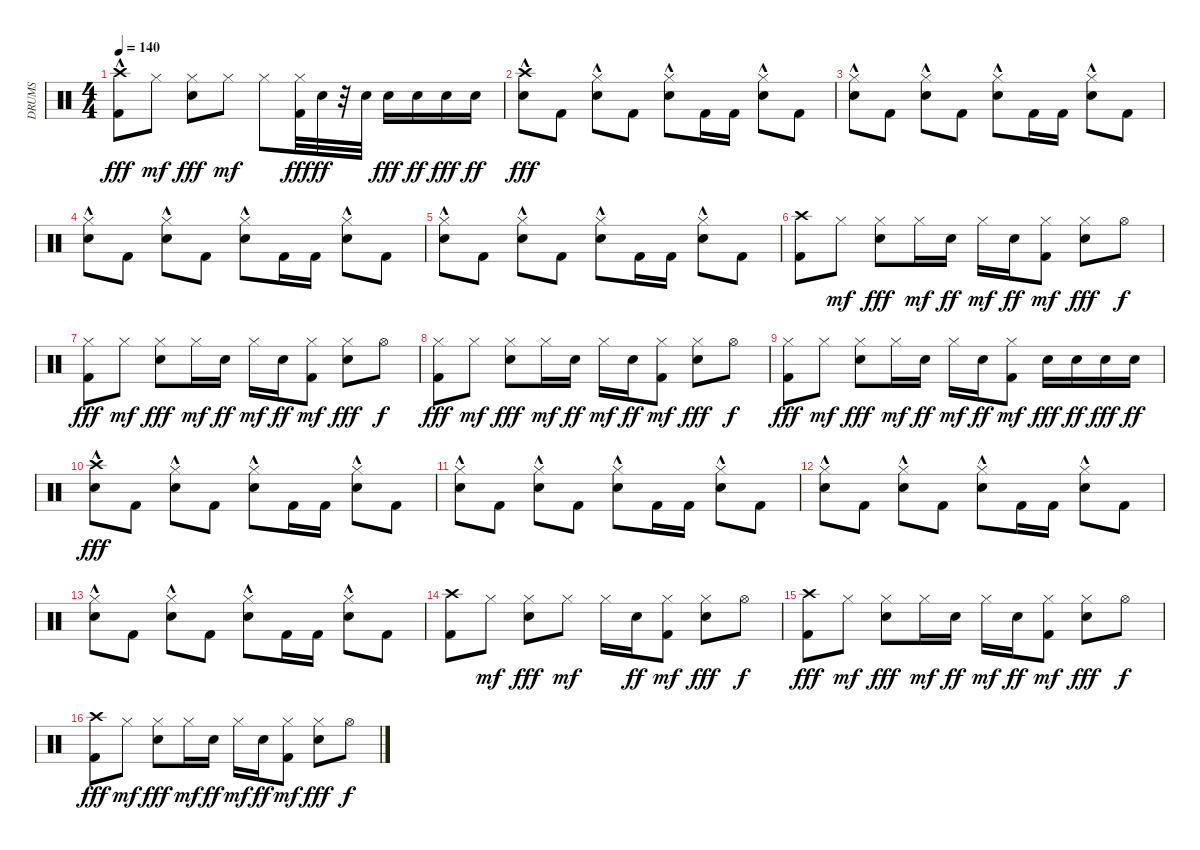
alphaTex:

\track ("DRUMS" "DRUMS") {instrument percussion}
\staff {score}
\articulation defaults
\ts (4 4)
\tempo 140
\clef neutral
\ks c
("Crash high (hit)" "Kick (hit) 2"{hac}).8{dy fff} "Hi-Hat (closed)".8{dy mf} ("Hi-Hat (closed)" "Electric Snare (hit)").8{dy fff} "Hi-Hat (closed)".8{dy mf} "Hi-Hat (closed)".8 ("Hi-Hat (closed)" "Kick (hit) 2").32{dy fff} "Electric Snare (hit)".32{dy ff} r.32 "Electric Snare (hit)".32 "Electric Snare (hit)".16{dy fff} "Electric Snare (hit)".16{dy ff} "Electric Snare (hit)".16{dy fff} "Electric Snare (hit)".16{dy ff} |
("Electric Snare (hit)"{hac} "Crash high (hit)"{hac}).8{dy fff} "Kick (hit) 2".8 ("Electric Snare (hit)"{hac} "Hi-Hat (closed)"{hac}).8 "Kick (hit) 2".8 ("Electric Snare (hit)"{hac} "Hi-Hat (closed)"{hac}).8 "Kick (hit) 2".16 "Kick (hit) 2".16 ("Electric Snare (hit)"{hac} "Hi-Hat (closed)"{hac}).8 "Kick (hit) 2".8 |
("Electric Snare (hit)"{hac} "Hi-Hat (closed)"{hac}).8 "Kick (hit) 2".8 ("Electric Snare (hit)"{hac} "Hi-Hat (closed)"{hac}).8 "Kick (hit) 2".8 ("Electric Snare (hit)"{hac} "Hi-Hat (closed)"{hac}).8 "Kick (hit) 2".16 "Kick (hit) 2".16 ("Electric Snare (hit)"{hac} "Hi-Hat (closed)"{hac}).8 "Kick (hit) 2".8 |
("Electric Snare (hit)"{hac} "Hi-Hat (closed)"{hac}).8 "Kick (hit) 2".8 ("Electric Snare (hit)"{hac} "Hi-Hat (closed)"{hac}).8 "Kick (hit) 2".8 ("Electric Snare (hit)"{hac} "Hi-Hat (closed)"{hac}).8 "Kick (hit) 2".16 "Kick (hit) 2".16 ("Electric Snare (hit)"{hac} "Hi-Hat (closed)"{hac}).8 "Kick (hit) 2".8 |
("Electric Snare (hit)"{hac} "Hi-Hat (closed)"{hac}).8 "Kick (hit) 2".8 ("Electric Snare (hit)"{hac} "Hi-Hat (closed)"{hac}).8 "Kick (hit) 2".8 ("Electric Snare (hit)"{hac} "Hi-Hat (closed)"{hac}).8 "Kick (hit) 2".16 "Kick (hit) 2".16 ("Electric Snare (hit)"{hac} "Hi-Hat (closed)"{hac}).8 "Kick (hit) 2".8 |
("Kick (hit) 2" "Crash high (hit)").8 "Hi-Hat (closed)".8{dy mf} ("Hi-Hat (closed)" "Electric Snare (hit)").8{dy fff} "Hi-Hat (closed)".16{dy mf} "Electric Snare (hit)".16{dy ff} "Hi-Hat (closed)".16{dy mf} "Electric Snare (hit)".16{dy ff} ("Kick (hit) 2" "Hi-Hat (closed)").8{dy mf} ("Hi-Hat (closed)" "Electric Snare (hit)").8{dy fff} "Hi-Hat (open)".8{dy f} |
("Kick (hit) 2" "Hi-Hat (closed)").8{dy fff} "Hi-Hat (closed)".8{dy mf} ("Hi-Hat (closed)" "Electric Snare (hit)").8{dy fff} "Hi-Hat (closed)".16{dy mf} "Electric Snare (hit)".16{dy ff} "Hi-Hat (closed)".16{dy mf} "Electric Snare (hit)".16{dy ff} ("Kick (hit) 2" "Hi-Hat (closed)").8{dy mf} ("Hi-Hat (closed)" "Electric Snare (hit)").8{dy fff} "Hi-Hat (open)".8{dy f} |
("Kick (hit) 2" "Hi-Hat (closed)").8{dy fff} "Hi-Hat (closed)".8{dy mf} ("Hi-Hat (closed)" "Electric Snare (hit)").8{dy fff} "Hi-Hat (closed)".16{dy mf} "Electric Snare (hit)".16{dy ff} "Hi-Hat (closed)".16{dy mf} "Electric Snare (hit)".16{dy ff} ("Kick (hit) 2" "Hi-Hat (closed)").8{dy mf} ("Hi-Hat (closed)" "Electric Snare (hit)").8{dy fff} "Hi-Hat (open)".8{dy f} |
("Kick (hit) 2" "Hi-Hat (closed)").8{dy fff} "Hi-Hat (closed)".8{dy mf} ("Hi-Hat (closed)" "Electric Snare (hit)").8{dy fff} "Hi-Hat (closed)".16{dy mf} "Electric Snare (hit)".16{dy ff} "Hi-Hat (closed)".16{dy mf} "Electric Snare (hit)".16{dy ff} ("Kick (hit) 2" "Hi-Hat (closed)").8{dy mf} "Electric Snare (hit)".16{dy fff} "Electric Snare (hit)".16{dy ff} "Electric Snare (hit)".16{dy fff} "Electric Snare (hit)".16{dy ff} |
("Electric Snare (hit)"{hac} "Crash high (hit)"{hac}).8{dy fff} "Kick (hit) 2".8 ("Electric Snare (hit)"{hac} "Hi-Hat (closed)"{hac}).8 "Kick (hit) 2".8 ("Electric Snare (hit)"{hac} "Hi-Hat (closed)"{hac}).8 "Kick (hit) 2".16 "Kick (hit) 2".16 ("Electric Snare (hit)"{hac} "Hi-Hat (closed)"{hac}).8 "Kick (hit) 2".8 |
("Electric Snare (hit)"{hac} "Hi-Hat (closed)"{hac}).8 "Kick (hit) 2".8 ("Electric Snare (hit)"{hac} "Hi-Hat (closed)"{hac}).8 "Kick (hit) 2".8 ("Electric Snare (hit)"{hac} "Hi-Hat (closed)"{hac}).8 "Kick (hit) 2".16 "Kick (hit) 2".16 ("Electric Snare (hit)"{hac} "Hi-Hat (closed)"{hac}).8 "Kick (hit) 2".8 |
("Electric Snare (hit)"{hac} "Hi-Hat (closed)"{hac}).8 "Kick (hit) 2".8 ("Electric Snare (hit)"{hac} "Hi-Hat (closed)"{hac}).8 "Kick (hit) 2".8 ("Electric Snare (hit)"{hac} "Hi-Hat (closed)"{hac}).8 "Kick (hit) 2".16 "Kick (hit) 2".16 ("Electric Snare (hit)"{hac} "Hi-Hat (closed)"{hac}).8 "Kick (hit) 2".8 |
("Electric Snare (hit)"{hac} "Hi-Hat (closed)"{hac}).8 "Kick (hit) 2".8 ("Electric Snare (hit)"{hac} "Hi-Hat (closed)"{hac}).8 "Kick (hit) 2".8 ("Electric Snare (hit)"{hac} "Hi-Hat (closed)"{hac}).8 "Kick (hit) 2".16 "Kick (hit) 2".16 ("Electric Snare (hit)"{hac} "Hi-Hat (closed)"{hac}).8 "Kick (hit) 2".8 |
("Kick (hit) 2" "Crash high (hit)").8 "Hi-Hat (closed)".8{dy mf} ("Hi-Hat (closed)" "Electric Snare (hit)").8{dy fff} "Hi-Hat (closed)".8{dy mf} "Hi-Hat (closed)".16 "Electric Snare (hit)".16{dy ff} ("Kick (hit) 2" "Hi-Hat (closed)").8{dy mf} ("Hi-Hat (closed)" "Electric Snare (hit)").8{dy fff} "Hi-Hat (open)".8{dy f} |
("Kick (hit) 2" "Crash high (hit)").8{dy fff} "Hi-Hat (closed)".8{dy mf} ("Hi-Hat (closed)" "Electric Snare (hit)").8{dy fff} "Hi-Hat (closed)".16{dy mf} "Electric Snare (hit)".16{dy ff} "Hi-Hat (closed)".16{dy mf} "Electric Snare (hit)".16{dy ff} ("Kick (hit) 2" "Hi-Hat (closed)").8{dy mf} ("Hi-Hat (closed)" "Electric Snare (hit)").8{dy fff} "Hi-Hat (open)".8{dy f} |
("Kick (hit) 2" "Crash high (hit)").8{dy fff} "Hi-Hat (closed)".8{dy mf} ("Hi-Hat (closed)" "Electric Snare (hit)").8{dy fff} "Hi-Hat (closed)".16{dy mf} "Electric Snare (hit)".16{dy ff} "Hi-Hat (closed)".16{dy mf} "Electric Snare (hit)".16{dy ff} ("Kick (hit) 2" "Hi-Hat (closed)").8{dy mf} ("Hi-Hat (closed)" "Electric Snare (hit)").8{dy fff} "Hi-Hat (open)".8{dy f}
